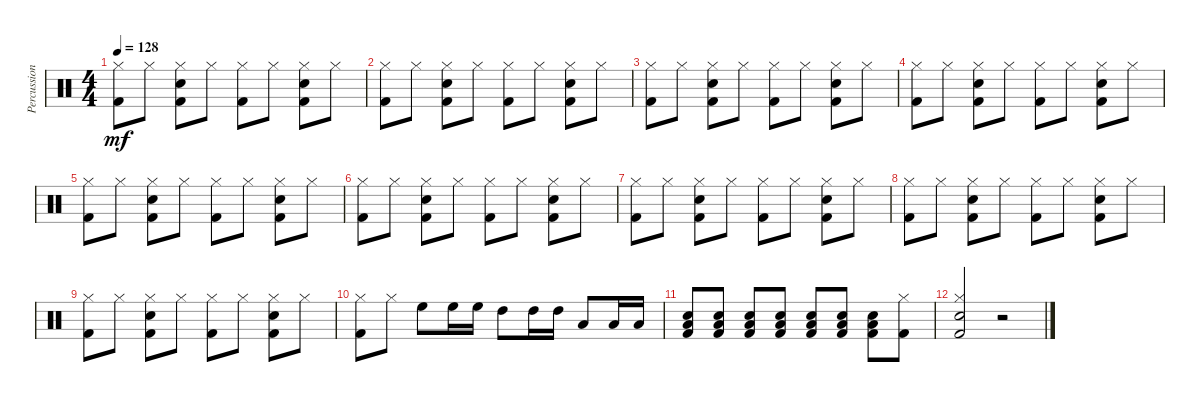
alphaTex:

\track ("Percussions" "Percussion") {instrument percussion}
\staff {score}
\articulation defaults
\ts (4 4)
\tempo 128
\clef neutral
\ks c
("Kick (hit) 2" "Hi-Hat (closed)").8{dy mf} "Hi-Hat (closed)".8 ("Kick (hit) 2" "Hi-Hat (closed)" "Snare (hit) 2").8 "Hi-Hat (closed)".8 ("Kick (hit) 2" "Hi-Hat (closed)").8 "Hi-Hat (closed)".8 ("Kick (hit) 2" "Hi-Hat (closed)" "Snare (hit) 2").8 "Hi-Hat (closed)".8 |
("Kick (hit) 2" "Hi-Hat (closed)").8 "Hi-Hat (closed)".8 ("Kick (hit) 2" "Hi-Hat (closed)" "Snare (hit) 2").8 "Hi-Hat (closed)".8 ("Kick (hit) 2" "Hi-Hat (closed)").8 "Hi-Hat (closed)".8 ("Kick (hit) 2" "Hi-Hat (closed)" "Snare (hit) 2").8 "Hi-Hat (closed)".8 |
("Kick (hit) 2" "Hi-Hat (closed)").8 "Hi-Hat (closed)".8 ("Kick (hit) 2" "Hi-Hat (closed)" "Snare (hit) 2").8 "Hi-Hat (closed)".8 ("Kick (hit) 2" "Hi-Hat (closed)").8 "Hi-Hat (closed)".8 ("Kick (hit) 2" "Hi-Hat (closed)" "Snare (hit) 2").8 "Hi-Hat (closed)".8 |
("Kick (hit) 2" "Hi-Hat (closed)").8 "Hi-Hat (closed)".8 ("Kick (hit) 2" "Hi-Hat (closed)" "Snare (hit) 2").8 "Hi-Hat (closed)".8 ("Kick (hit) 2" "Hi-Hat (closed)").8 "Hi-Hat (closed)".8 ("Kick (hit) 2" "Hi-Hat (closed)" "Snare (hit) 2").8 "Hi-Hat (closed)".8 |
("Kick (hit) 2" "Hi-Hat (closed)").8 "Hi-Hat (closed)".8 ("Kick (hit) 2" "Hi-Hat (closed)" "Snare (hit) 2").8 "Hi-Hat (closed)".8 ("Kick (hit) 2" "Hi-Hat (closed)").8 "Hi-Hat (closed)".8 ("Kick (hit) 2" "Hi-Hat (closed)" "Snare (hit) 2").8 "Hi-Hat (closed)".8 |
("Kick (hit) 2" "Hi-Hat (closed)").8 "Hi-Hat (closed)".8 ("Kick (hit) 2" "Hi-Hat (closed)" "Snare (hit) 2").8 "Hi-Hat (closed)".8 ("Kick (hit) 2" "Hi-Hat (closed)").8 "Hi-Hat (closed)".8 ("Kick (hit) 2" "Hi-Hat (closed)" "Snare (hit) 2").8 "Hi-Hat (closed)".8 |
("Kick (hit) 2" "Hi-Hat (closed)").8 "Hi-Hat (closed)".8 ("Kick (hit) 2" "Hi-Hat (closed)" "Snare (hit) 2").8 "Hi-Hat (closed)".8 ("Kick (hit) 2" "Hi-Hat (closed)").8 "Hi-Hat (closed)".8 ("Kick (hit) 2" "Hi-Hat (closed)" "Snare (hit) 2").8 "Hi-Hat (closed)".8 |
("Kick (hit) 2" "Hi-Hat (closed)").8 "Hi-Hat (closed)".8 ("Kick (hit) 2" "Hi-Hat (closed)" "Snare (hit) 2").8 "Hi-Hat (closed)".8 ("Kick (hit) 2" "Hi-Hat (closed)").8 "Hi-Hat (closed)".8 ("Kick (hit) 2" "Hi-Hat (closed)" "Snare (hit) 2").8 "Hi-Hat (closed)".8 |
("Kick (hit) 2" "Hi-Hat (closed)").8 "Hi-Hat (closed)".8 ("Kick (hit) 2" "Hi-Hat (closed)" "Snare (hit) 2").8 "Hi-Hat (closed)".8 ("Kick (hit) 2" "Hi-Hat (closed)").8 "Hi-Hat (closed)".8 ("Kick (hit) 2" "Hi-Hat (closed)" "Snare (hit) 2").8 "Hi-Hat (closed)".8 |
("Kick (hit) 2" "Hi-Hat (closed)").8 "Hi-Hat (closed)".8 "High Floor Tom (hit)".8 "High Floor Tom (hit)".16 "High Floor Tom (hit)".16 "High Tom (hit)".8 "High Tom (hit)".16 "High Tom (hit)".16 "Low Tom (hit)".8 "Low Floor Tom (hit)".16 "Low Floor Tom (hit)".16 |
("Kick (hit) 2" "Snare (hit) 2" "Low Floor Tom (hit)").8 ("Kick (hit) 2" "Snare (hit) 2" "Low Floor Tom (hit)").8 ("Kick (hit) 2" "Snare (hit) 2" "Low Floor Tom (hit)").8 ("Kick (hit) 2" "Snare (hit) 2" "Low Floor Tom (hit)").8 ("Kick (hit) 2" "Snare (hit) 2" "Low Floor Tom (hit)").8 ("Kick (hit) 2" "Snare (hit) 2" "Low Floor Tom (hit)").8 ("Kick (hit) 2" "Snare (hit) 2" "Low Floor Tom (hit)").8 ("Kick (hit) 2" "Hi-Hat (closed)").8 |
("Kick (hit) 2" "Hi-Hat (closed)" "Snare (hit) 2").2 r.2
